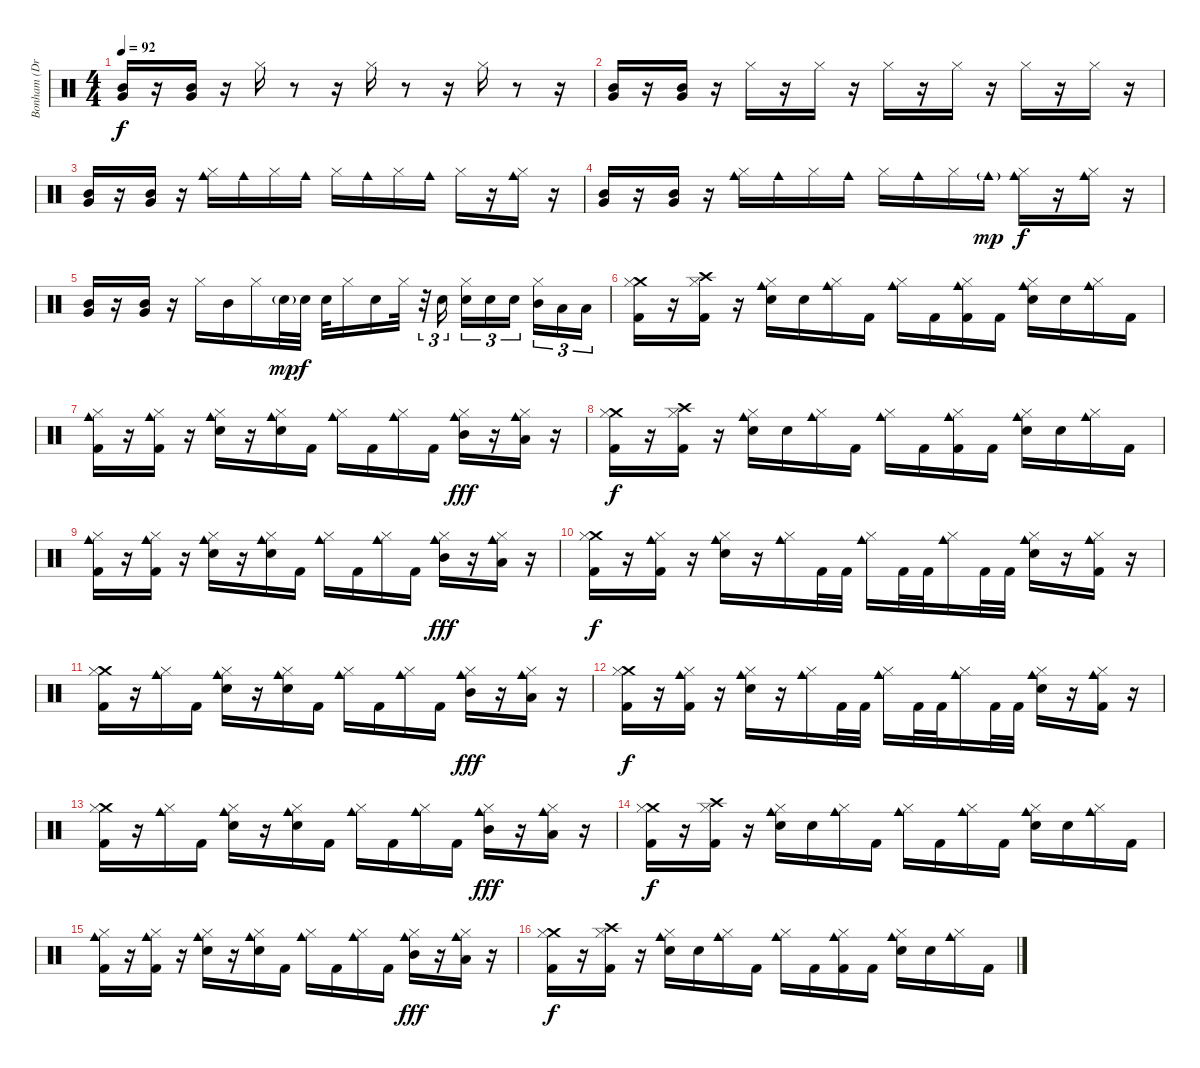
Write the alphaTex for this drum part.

\track ("Bonham (Drums)" "Bonham (Dr") {instrument percussion}
\staff {score}
\articulation defaults
\ts (4 4)
\tempo 92
\clef neutral
\ks c
("Mid Tom (hit)" "Very Low Tom (hit)").16{dy f} r.16 ("Mid Tom (hit)" "Very Low Tom (hit)").16 r.16 "Hi-Hat (closed)".16 r.8 r.16 "Hi-Hat (closed)".16 r.8 r.16 "Hi-Hat (closed)".16 r.8 r.16 |
("Mid Tom (hit)" "Very Low Tom (hit)").16 r.16 ("Mid Tom (hit)" "Very Low Tom (hit)").16 r.16 "Hi-Hat (closed)".16 r.16 "Hi-Hat (closed)".16 r.16 "Hi-Hat (closed)".16 r.16 "Hi-Hat (closed)".16 r.16 "Hi-Hat (closed)".16 r.16 "Hi-Hat (closed)".16 r.16 |
("Mid Tom (hit)" "Very Low Tom (hit)").16 r.16 ("Mid Tom (hit)" "Very Low Tom (hit)").16 r.16 ("Hi-Hat (closed)" "Cowbell medium (hit)").16 "Cowbell medium (hit)".16 "Hi-Hat (closed)".16 "Cowbell medium (hit)".16 "Hi-Hat (closed)".16 "Cowbell medium (hit)".16 "Hi-Hat (closed)".16 "Cowbell medium (hit)".16 "Hi-Hat (closed)".16 r.16 ("Hi-Hat (closed)" "Cowbell medium (hit)").16 r.16 |
("Mid Tom (hit)" "Very Low Tom (hit)").16 r.16 ("Mid Tom (hit)" "Very Low Tom (hit)").16 r.16 ("Hi-Hat (closed)" "Cowbell medium (hit)").16 "Cowbell medium (hit)".16 "Hi-Hat (closed)".16 "Cowbell medium (hit)".16 "Hi-Hat (closed)".16 "Cowbell medium (hit)".16 "Hi-Hat (closed)".16 "Cowbell medium (hit)"{g}.16{dy mp} ("Hi-Hat (closed)" "Cowbell medium (hit)").16{dy f} r.16 ("Cowbell medium (hit)" "Hi-Hat (closed)").16 r.16 |
("Mid Tom (hit)" "Very Low Tom (hit)").16 r.16 ("Mid Tom (hit)" "Very Low Tom (hit)").16 r.16 "Hi-Hat (closed)".16 "Mid Tom (hit)".16 "Hi-Hat (closed)".16 "Electric Snare (hit)"{g}.32{dy mp} "Electric Snare (hit)".32{dy f} "Electric Snare (hit)".32 "Hi-Hat (closed)".16 "Electric Snare (hit)".16 "Hi-Hat (closed)".32 r.32{tu (3 2)} "Electric Snare (hit)".16{tu (3 2)} ("Hi-Hat (closed)" "Electric Snare (hit)").16{tu (3 2)} "Electric Snare (hit)".16{tu (3 2)} "Electric Snare (hit)".16{tu (3 2)} ("Hi-Hat (closed)" "Mid Tom (hit)").16{tu (3 2)} "Low Tom (hit)".16{tu (3 2)} "Low Floor Tom (hit)".16{tu (3 2)} |
("Crash medium (hit)" "Hi-Hat (closed)" "Kick (hit) 2").16{balance 8} r.16 ("Crash high (hit)" "Hi-Hat (closed)" "Kick (hit) 2").16 r.16 ("Cowbell medium (hit)" "Hi-Hat (closed)" "Electric Snare (hit)").16 "Electric Snare (hit)".16 ("Cowbell medium (hit)" "Hi-Hat (closed)").16 "Kick (hit) 2".16 ("Cowbell medium (hit)" "Hi-Hat (closed)").16 "Kick (hit) 2".16 ("Cowbell medium (hit)" "Hi-Hat (closed)" "Kick (hit) 2").16 "Kick (hit) 2".16 ("Cowbell medium (hit)" "Hi-Hat (closed)" "Electric Snare (hit)").16 "Electric Snare (hit)".16 ("Cowbell medium (hit)" "Hi-Hat (closed)").16 "Kick (hit) 2".16 |
("Cowbell medium (hit)" "Hi-Hat (closed)" "Kick (hit) 2").16 r.16 ("Cowbell medium (hit)" "Hi-Hat (closed)" "Kick (hit) 2").16 r.16 ("Cowbell medium (hit)" "Hi-Hat (closed)" "Electric Snare (hit)").16 r.16 ("Cowbell medium (hit)" "Hi-Hat (closed)" "Electric Snare (hit)").16 "Kick (hit) 2".16 ("Cowbell medium (hit)" "Hi-Hat (closed)").16 "Kick (hit) 2".16 ("Cowbell medium (hit)" "Hi-Hat (closed)").16 "Kick (hit) 2".16 ("Cowbell medium (hit)" "Hi-Hat (closed)" "Mid Tom (hit)").16{dy fff} r.16 ("Cowbell medium (hit)" "Hi-Hat (closed)" "Low Tom (hit)").16 r.16 |
("Crash medium (hit)" "Hi-Hat (closed)" "Kick (hit) 2").16{dy f} r.16 ("Crash high (hit)" "Hi-Hat (closed)" "Kick (hit) 2").16 r.16 ("Cowbell medium (hit)" "Hi-Hat (closed)" "Electric Snare (hit)").16 "Electric Snare (hit)".16 ("Cowbell medium (hit)" "Hi-Hat (closed)").16 "Kick (hit) 2".16 ("Cowbell medium (hit)" "Hi-Hat (closed)").16 "Kick (hit) 2".16 ("Cowbell medium (hit)" "Hi-Hat (closed)" "Kick (hit) 2").16 "Kick (hit) 2".16 ("Cowbell medium (hit)" "Hi-Hat (closed)" "Electric Snare (hit)").16 "Electric Snare (hit)".16 ("Cowbell medium (hit)" "Hi-Hat (closed)").16 "Kick (hit) 2".16 |
("Cowbell medium (hit)" "Hi-Hat (closed)" "Kick (hit) 2").16 r.16 ("Cowbell medium (hit)" "Hi-Hat (closed)" "Kick (hit) 2").16 r.16 ("Cowbell medium (hit)" "Hi-Hat (closed)" "Electric Snare (hit)").16 r.16 ("Cowbell medium (hit)" "Hi-Hat (closed)" "Electric Snare (hit)").16 "Kick (hit) 2".16 ("Cowbell medium (hit)" "Hi-Hat (closed)").16 "Kick (hit) 2".16 ("Cowbell medium (hit)" "Hi-Hat (closed)").16 "Kick (hit) 2".16 ("Cowbell medium (hit)" "Hi-Hat (closed)" "Mid Tom (hit)").16{dy fff} r.16 ("Cowbell medium (hit)" "Hi-Hat (closed)" "Low Tom (hit)").16 r.16 |
("Crash medium (hit)" "Hi-Hat (closed)" "Kick (hit) 2").16{dy f} r.16 ("Cowbell medium (hit)" "Hi-Hat (closed)" "Kick (hit) 2").16 r.16 ("Cowbell medium (hit)" "Hi-Hat (closed)" "Electric Snare (hit)").16 r.16 ("Cowbell medium (hit)" "Hi-Hat (closed)").16 "Kick (hit) 2".32 "Kick (hit) 2".32 ("Cowbell medium (hit)" "Hi-Hat (closed)").16 "Kick (hit) 2".32 "Kick (hit) 2".32 ("Cowbell medium (hit)" "Hi-Hat (closed)").16 "Kick (hit) 2".32 "Kick (hit) 2".32 ("Cowbell medium (hit)" "Hi-Hat (closed)" "Electric Snare (hit)").16 r.16 ("Cowbell medium (hit)" "Hi-Hat (closed)" "Kick (hit) 2").16 r.16 |
("Crash medium (hit)" "Hi-Hat (closed)" "Kick (hit) 2").16 r.16 ("Cowbell medium (hit)" "Hi-Hat (closed)").16 "Kick (hit) 2".16 ("Cowbell medium (hit)" "Hi-Hat (closed)" "Electric Snare (hit)").16 r.16 ("Cowbell medium (hit)" "Hi-Hat (closed)" "Electric Snare (hit)").16 "Kick (hit) 2".16 ("Cowbell medium (hit)" "Hi-Hat (closed)").16 "Kick (hit) 2".16 ("Cowbell medium (hit)" "Hi-Hat (closed)").16 "Kick (hit) 2".16 ("Cowbell medium (hit)" "Hi-Hat (closed)" "Mid Tom (hit)").16{dy fff} r.16 ("Cowbell medium (hit)" "Hi-Hat (closed)" "Low Tom (hit)").16 r.16 |
("Crash medium (hit)" "Hi-Hat (closed)" "Kick (hit) 2").16{dy f} r.16 ("Cowbell medium (hit)" "Hi-Hat (closed)" "Kick (hit) 2").16 r.16 ("Cowbell medium (hit)" "Hi-Hat (closed)" "Electric Snare (hit)").16 r.16 ("Cowbell medium (hit)" "Hi-Hat (closed)").16 "Kick (hit) 2".32 "Kick (hit) 2".32 ("Cowbell medium (hit)" "Hi-Hat (closed)").16 "Kick (hit) 2".32 "Kick (hit) 2".32 ("Cowbell medium (hit)" "Hi-Hat (closed)").16 "Kick (hit) 2".32 "Kick (hit) 2".32 ("Cowbell medium (hit)" "Hi-Hat (closed)" "Electric Snare (hit)").16 r.16 ("Cowbell medium (hit)" "Hi-Hat (closed)" "Kick (hit) 2").16 r.16 |
("Crash medium (hit)" "Hi-Hat (closed)" "Kick (hit) 2").16 r.16 ("Cowbell medium (hit)" "Hi-Hat (closed)").16 "Kick (hit) 2".16 ("Cowbell medium (hit)" "Hi-Hat (closed)" "Electric Snare (hit)").16 r.16 ("Cowbell medium (hit)" "Hi-Hat (closed)" "Electric Snare (hit)").16 "Kick (hit) 2".16 ("Cowbell medium (hit)" "Hi-Hat (closed)").16 "Kick (hit) 2".16 ("Cowbell medium (hit)" "Hi-Hat (closed)").16 "Kick (hit) 2".16 ("Cowbell medium (hit)" "Hi-Hat (closed)" "Mid Tom (hit)").16{dy fff} r.16 ("Cowbell medium (hit)" "Hi-Hat (closed)" "Low Tom (hit)").16 r.16 |
("Crash medium (hit)" "Hi-Hat (closed)" "Kick (hit) 2").16{dy f} r.16 ("Crash high (hit)" "Hi-Hat (closed)" "Kick (hit) 2").16 r.16 ("Cowbell medium (hit)" "Hi-Hat (closed)" "Electric Snare (hit)").16 "Electric Snare (hit)".16 ("Cowbell medium (hit)" "Hi-Hat (closed)").16 "Kick (hit) 2".16 ("Cowbell medium (hit)" "Hi-Hat (closed)").16 "Kick (hit) 2".16 ("Cowbell medium (hit)" "Hi-Hat (closed)").16 "Kick (hit) 2".16 ("Cowbell medium (hit)" "Hi-Hat (closed)" "Electric Snare (hit)").16 "Electric Snare (hit)".16 ("Cowbell medium (hit)" "Hi-Hat (closed)").16 "Kick (hit) 2".16 |
("Cowbell medium (hit)" "Hi-Hat (closed)" "Kick (hit) 2").16 r.16 ("Cowbell medium (hit)" "Hi-Hat (closed)" "Kick (hit) 2").16 r.16 ("Cowbell medium (hit)" "Hi-Hat (closed)" "Electric Snare (hit)").16 r.16 ("Cowbell medium (hit)" "Hi-Hat (closed)" "Electric Snare (hit)").16 "Kick (hit) 2".16 ("Cowbell medium (hit)" "Hi-Hat (closed)").16 "Kick (hit) 2".16 ("Cowbell medium (hit)" "Hi-Hat (closed)").16 "Kick (hit) 2".16 ("Cowbell medium (hit)" "Hi-Hat (closed)" "Mid Tom (hit)").16{dy fff} r.16 ("Cowbell medium (hit)" "Hi-Hat (closed)" "Low Tom (hit)").16 r.16 |
("Crash medium (hit)" "Hi-Hat (closed)" "Kick (hit) 2").16{dy f} r.16 ("Crash high (hit)" "Hi-Hat (closed)" "Kick (hit) 2").16 r.16 ("Cowbell medium (hit)" "Hi-Hat (closed)" "Electric Snare (hit)").16 "Electric Snare (hit)".16 ("Cowbell medium (hit)" "Hi-Hat (closed)").16 "Kick (hit) 2".16 ("Cowbell medium (hit)" "Hi-Hat (closed)").16 "Kick (hit) 2".16 ("Cowbell medium (hit)" "Hi-Hat (closed)" "Kick (hit) 2").16 "Kick (hit) 2".16 ("Cowbell medium (hit)" "Hi-Hat (closed)" "Electric Snare (hit)").16 "Electric Snare (hit)".16 ("Cowbell medium (hit)" "Hi-Hat (closed)").16 "Kick (hit) 2".16
